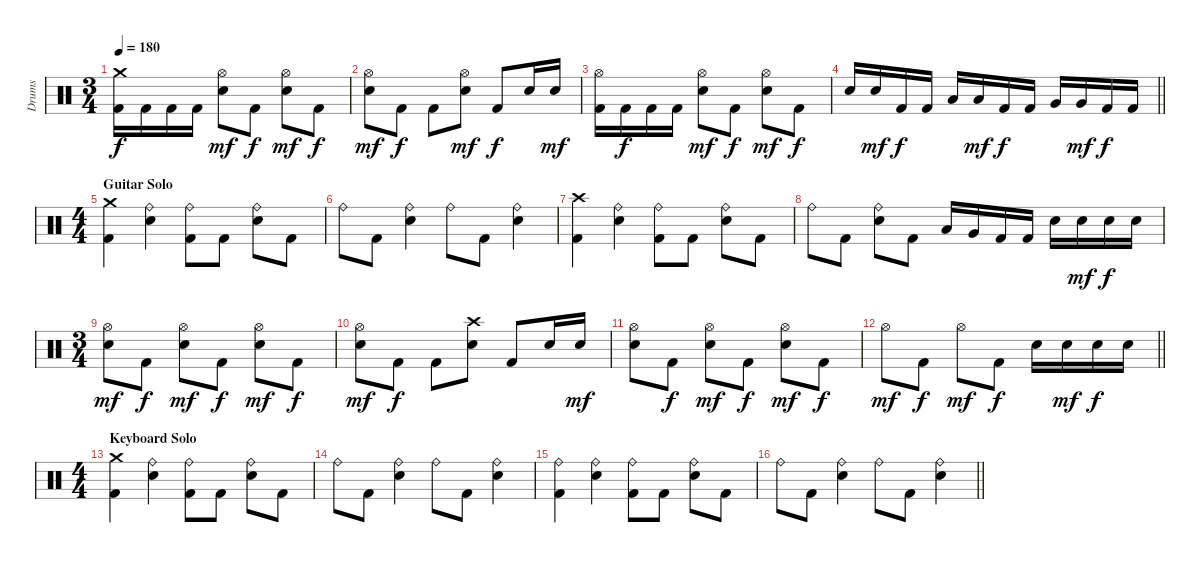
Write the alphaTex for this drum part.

\track ("Drums" "Drums") {instrument percussion}
\staff {score}
\articulation defaults
\ts (3 4)
\tempo 180
\clef neutral
\ks c
("Kick (hit) 2" "Crash medium (hit)").16{dy f} "Kick (hit) 2".16 "Kick (hit) 2".16 "Kick (hit) 2".16 ("Hi-Hat (open)" "Electric Snare (hit)").8{dy mf} "Kick (hit) 2".8{dy f} ("Hi-Hat (open)" "Electric Snare (hit)").8{dy mf} "Kick (hit) 2".8{dy f} |
("Hi-Hat (open)" "Electric Snare (hit)").8{dy mf} "Kick (hit) 2".8{dy f} "Kick (hit) 2".8 ("Hi-Hat (open)" "Electric Snare (hit)").8{dy mf} "Kick (hit) 2".8{dy f} "Electric Snare (hit)".16 "Electric Snare (hit)".16{dy mf} |
("Kick (hit) 2" "Hi-Hat (open)").16 "Kick (hit) 2".16{dy f} "Kick (hit) 2".16 "Kick (hit) 2".16 ("Hi-Hat (open)" "Electric Snare (hit)").8{dy mf} "Kick (hit) 2".8{dy f} ("Hi-Hat (open)" "Electric Snare (hit)").8{dy mf} "Kick (hit) 2".8{dy f} |
\barLineRight lightlight "Electric Snare (hit)".16 "Electric Snare (hit)".16{dy mf} "Kick (hit) 2".16{dy f} "Kick (hit) 2".16 "Low Tom (hit)".16 "Low Tom (hit)".16{dy mf} "Kick (hit) 2".16{dy f} "Kick (hit) 2".16 "Very Low Tom (hit)".16 "Very Low Tom (hit)".16{dy mf} "Kick (hit) 2".16{dy f} "Kick (hit) 2".16
|
\ts (4 4)
\section ("" "Guitar Solo")
("Kick (hit) 2" "Crash medium (hit)").4 ("Ride (bell)" "Electric Snare (hit)").4 ("Kick (hit) 2" "Ride (bell)").8 "Kick (hit) 2".8 ("Ride (bell)" "Electric Snare (hit)").8 "Kick (hit) 2".8 |
"Ride (bell)".8 "Kick (hit) 2".8 ("Ride (bell)" "Electric Snare (hit)").4 "Ride (bell)".8 "Kick (hit) 2".8 ("Ride (bell)" "Electric Snare (hit)").4 |
("Kick (hit) 2" "Crash high (hit)").4 ("Ride (bell)" "Electric Snare (hit)").4 ("Kick (hit) 2" "Ride (bell)").8 "Kick (hit) 2".8 ("Ride (bell)" "Electric Snare (hit)").8 "Kick (hit) 2".8 |
"Ride (bell)".8 "Kick (hit) 2".8 ("Ride (bell)" "Electric Snare (hit)").8 "Kick (hit) 2".8 "Low Tom (hit)".16 "Very Low Tom (hit)".16 "Kick (hit) 2".16 "Kick (hit) 2".16 "Electric Snare (hit)".16 "Electric Snare (hit)".16{dy mf} "Electric Snare (hit)".16{dy f} "Electric Snare (hit)".16 |
\ts (3 4)
("Hi-Hat (open)" "Electric Snare (hit)").8{dy mf} "Kick (hit) 2".8{dy f} ("Hi-Hat (open)" "Electric Snare (hit)").8{dy mf} "Kick (hit) 2".8{dy f} ("Hi-Hat (open)" "Electric Snare (hit)").8{dy mf} "Kick (hit) 2".8{dy f} |
("Hi-Hat (open)" "Electric Snare (hit)").8{dy mf} "Kick (hit) 2".8{dy f} "Kick (hit) 2".8 ("Crash high (hit)" "Electric Snare (hit)").8 "Kick (hit) 2".8 "Electric Snare (hit)".16 "Electric Snare (hit)".16{dy mf} |
("Hi-Hat (open)" "Electric Snare (hit)").8 "Kick (hit) 2".8{dy f} ("Hi-Hat (open)" "Electric Snare (hit)").8{dy mf} "Kick (hit) 2".8{dy f} ("Hi-Hat (open)" "Electric Snare (hit)").8{dy mf} "Kick (hit) 2".8{dy f} |
\barLineRight lightlight "Hi-Hat (open)".8{dy mf} "Kick (hit) 2".8{dy f} "Hi-Hat (open)".8{dy mf} "Kick (hit) 2".8{dy f} "Electric Snare (hit)".16 "Electric Snare (hit)".16{dy mf} "Electric Snare (hit)".16{dy f} "Electric Snare (hit)".16
|
\ts (4 4)
\section ("" "Keyboard Solo")
("Kick (hit) 2" "Crash medium (hit)").4 ("Ride (bell)" "Electric Snare (hit)").4 ("Kick (hit) 2" "Ride (bell)").8 "Kick (hit) 2".8 ("Ride (bell)" "Electric Snare (hit)").8 "Kick (hit) 2".8 |
"Ride (bell)".8 "Kick (hit) 2".8 ("Ride (bell)" "Electric Snare (hit)").4 "Ride (bell)".8 "Kick (hit) 2".8 ("Ride (bell)" "Electric Snare (hit)").4 |
("Kick (hit) 2" "Ride (bell)").4 ("Ride (bell)" "Electric Snare (hit)").4 ("Kick (hit) 2" "Ride (bell)").8 "Kick (hit) 2".8 ("Ride (bell)" "Electric Snare (hit)").8 "Kick (hit) 2".8 |
\barLineRight lightlight "Ride (bell)".8 "Kick (hit) 2".8
("Ride (bell)" "Electric Snare (hit)").4 "Ride (bell)".8 "Kick (hit) 2".8 ("Ride (bell)" "Electric Snare (hit)").4
